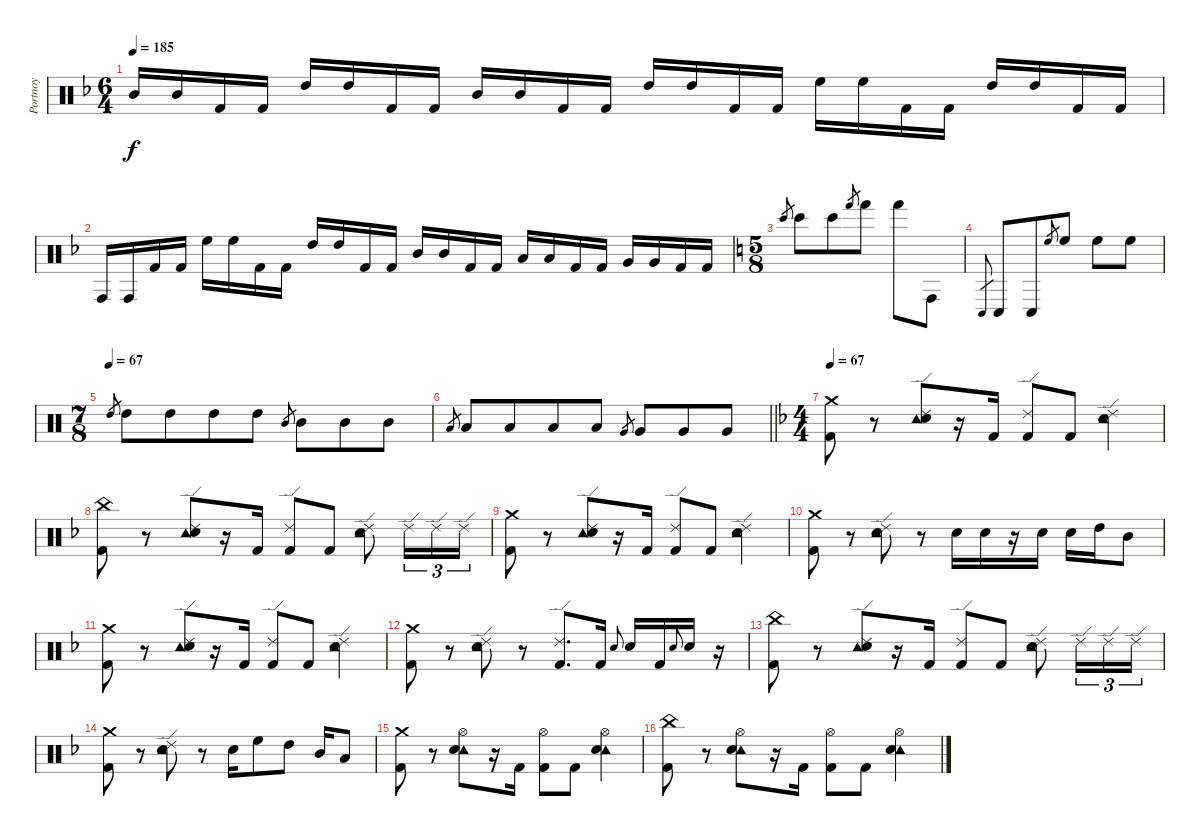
\track ("Portnoy" "Portnoy") {instrument percussion}
\staff {score}
\articulation defaults
\ts (6 4)
\tempo 185
\clef neutral
\ks f "Mid Tom (hit)".16{dy f} "Mid Tom (hit)".16 "Kick (hit) 2".16 "Kick (hit) 2".16 "High Tom (hit)".16 "High Tom (hit)".16 "Kick (hit) 2".16 "Kick (hit) 2".16 "Mid Tom (hit)".16 "Mid Tom (hit)".16 "Kick (hit) 2".16 "Kick (hit) 2".16 "High Tom (hit)".16 "High Tom (hit)".16 "Kick (hit) 2".16 "Kick (hit) 2".16 "High Floor Tom (hit)".16 "High Floor Tom (hit)".16 "Kick (hit) 2".16 "Kick (hit) 2".16 "High Tom (hit)".16 "High Tom (hit)".16 "Kick (hit) 2".16 "Kick (hit) 2".16
|
"Conga high (hit)".16 "Conga high (hit)".16 "Kick (hit) 2".16 "Kick (hit) 2".16 "High Floor Tom (hit)".16 "High Floor Tom (hit)".16 "Kick (hit) 2".16 "Kick (hit) 2".16 "High Tom (hit)".16 "High Tom (hit)".16 "Kick (hit) 2".16 "Kick (hit) 2".16 "Mid Tom (hit)".16 "Mid Tom (hit)".16 "Kick (hit) 2".16 "Kick (hit) 2".16 "Low Tom (hit)".16 "Low Tom (hit)".16 "Kick (hit) 2".16 "Kick (hit) 2".16 "Very Low Tom (hit)".16 "Very Low Tom (hit)".16 "Kick (hit) 2".16 "Kick (hit) 2".16 |
\ts (5 8)
\ks c "Bongo High (hit)".8{gr} "Bongo High (hit)".8 "Bongo High (hit)".8 "Hand (hit)".8{gr} "Hand (hit)".8 "Hand (hit)".8 "Conga high (hit)".8
|
"Conga low (hit)".8{gr} "Conga low (hit)".8 "Conga low (hit)".8 "High Floor Tom (hit)".8{gr} "High Floor Tom (hit)".8 "High Floor Tom (hit)".8 "High Floor Tom (hit)".8 |
\ts (7 8)
\tempo (67)
"High Tom (hit)".8{gr} "High Tom (hit)".8 "High Tom (hit)".8 "High Tom (hit)".8 "High Tom (hit)".8 "Mid Tom (hit)".8{gr} "Mid Tom (hit)".8 "Mid Tom (hit)".8 "Mid Tom (hit)".8 |
\barLineRight lightlight "Low Tom (hit)".8{gr} "Low Tom (hit)".8 "Low Tom (hit)".8 "Low Tom (hit)".8 "Low Tom (hit)".8 "Very Low Tom (hit)".8{gr} "Very Low Tom (hit)".8 "Very Low Tom (hit)".8 "Very Low Tom (hit)".8
|
\ts (4 4)
\tempo 67
\ks f
("Crash medium (hit)" "Kick (hit) 2").8 r.8 ("Ride (edge) 2" "Tambourine (hit)" "Electric Snare (hit)").8 r.16 "Kick (hit) 2".16 ("Ride (edge) 2" "Kick (hit) 2").8 "Kick (hit) 2".8 ("Ride (edge) 2" "Tambourine (hit)" "Electric Snare (hit)").4 |
("China (hit)" "Kick (hit) 2").8 r.8 ("Ride (edge) 2" "Tambourine (hit)" "Electric Snare (hit)").8 r.16 "Kick (hit) 2".16 ("Ride (edge) 2" "Kick (hit) 2").8 "Kick (hit) 2".8 ("Ride (edge) 2" "Tambourine (hit)" "Electric Snare (hit)").8 "Ride (edge) 2".16{tu (3 2)} "Ride (edge) 2".16{tu (3 2)} "Ride (edge) 2".16{tu (3 2)} |
("Crash medium (hit)" "Kick (hit) 2").8 r.8 ("Ride (edge) 2" "Tambourine (hit)" "Electric Snare (hit)").8 r.16 "Kick (hit) 2".16 ("Ride (edge) 2" "Kick (hit) 2").8 "Kick (hit) 2".8 ("Ride (edge) 2" "Tambourine (hit)" "Electric Snare (hit)").4 |
("Crash medium (hit)" "Kick (hit) 2").8 r.8 ("Ride (edge) 2" "Tambourine (hit)" "Electric Snare (hit)").8 r.8 "Electric Snare (hit)".16 "Electric Snare (hit)".16 r.16 "Electric Snare (hit)".16 "Electric Snare (hit)".16 "High Tom (hit)".16 "Mid Tom (hit)".8 |
("Crash medium (hit)" "Kick (hit) 2").8 r.8 ("Ride (edge) 2" "Tambourine (hit)" "Electric Snare (hit)").8 r.16 "Kick (hit) 2".16 ("Ride (edge) 2" "Kick (hit) 2").8 "Kick (hit) 2".8 ("Ride (edge) 2" "Tambourine (hit)" "Electric Snare (hit)").4 |
("Crash medium (hit)" "Kick (hit) 2").8 r.8 ("Ride (edge) 2" "Tambourine (hit)" "Electric Snare (hit)").8 r.8 ("Ride (edge) 2" "Kick (hit) 2").8{d} "Kick (hit) 2".16 "Electric Snare (hit)".8{gr onbeat} "Electric Snare (hit)".16 "Kick (hit) 2".16 "Electric Snare (hit)".8{gr onbeat} "Electric Snare (hit)".16 r.16 |
("China (hit)" "Kick (hit) 2").8 r.8 ("Ride (edge) 2" "Tambourine (hit)" "Electric Snare (hit)").8 r.16 "Kick (hit) 2".16 ("Ride (edge) 2" "Kick (hit) 2").8 "Kick (hit) 2".8 ("Ride (edge) 2" "Tambourine (hit)" "Electric Snare (hit)").8 "Ride (edge) 2".16{tu (3 2)} "Ride (edge) 2".16{tu (3 2)} "Ride (edge) 2".16{tu (3 2)} |
("Crash medium (hit)" "Kick (hit) 2").8 r.8 ("Ride (edge) 2" "Tambourine (hit)" "Electric Snare (hit)").8 r.8 "Electric Snare (hit)".16 "High Floor Tom (hit)".8 "High Tom (hit)".8 "Mid Tom (hit)".16 "Low Tom (hit)".8 |
("Crash medium (hit)" "Kick (hit) 2").8 r.8 ("Hi-Hat (open)" "Tambourine (hit)" "Electric Snare (hit)").8 r.16 "Kick (hit) 2".16 ("Hi-Hat (open)" "Kick (hit) 2").8 "Kick (hit) 2".8 ("Hi-Hat (open)" "Tambourine (hit)" "Electric Snare (hit)").4 |
("China (hit)" "Kick (hit) 2").8 r.8 ("Hi-Hat (open)" "Tambourine (hit)" "Electric Snare (hit)").8 r.16 "Kick (hit) 2".16 ("Hi-Hat (open)" "Kick (hit) 2").8 "Kick (hit) 2".8 ("Hi-Hat (open)" "Tambourine (hit)" "Electric Snare (hit)").4
